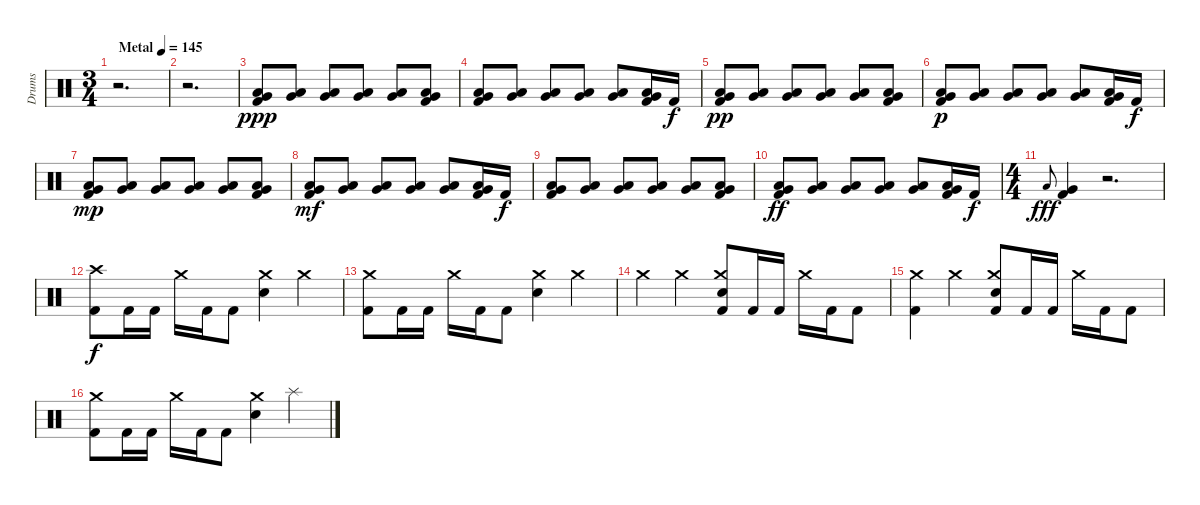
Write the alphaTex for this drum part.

\track ("Drums" "Drums") {instrument percussion}
\staff {score}
\articulation defaults
\ts (3 4)
\tempo (145 "Metal")
\clef neutral
\ks c
r.2{d dy ppp} |
r.2{d} |
("Low Tom (hit)" "Very Low Tom (hit)" "Kick (hit) 2").8 ("Low Tom (hit)" "Very Low Tom (hit)").8 ("Low Tom (hit)" "Very Low Tom (hit)").8 ("Low Tom (hit)" "Very Low Tom (hit)").8 ("Low Tom (hit)" "Very Low Tom (hit)").8 ("Low Tom (hit)" "Very Low Tom (hit)" "Kick (hit) 2").8 |
("Low Tom (hit)" "Very Low Tom (hit)" "Kick (hit) 2").8 ("Low Tom (hit)" "Very Low Tom (hit)").8 ("Low Tom (hit)" "Very Low Tom (hit)").8 ("Low Tom (hit)" "Very Low Tom (hit)").8 ("Low Tom (hit)" "Very Low Tom (hit)").8 ("Low Tom (hit)" "Very Low Tom (hit)" "Kick (hit) 2").16 "Kick (hit) 2".16{dy f} |
("Low Tom (hit)" "Very Low Tom (hit)" "Kick (hit) 2").8{dy pp} ("Low Tom (hit)" "Very Low Tom (hit)").8 ("Low Tom (hit)" "Very Low Tom (hit)").8 ("Low Tom (hit)" "Very Low Tom (hit)").8 ("Low Tom (hit)" "Very Low Tom (hit)").8 ("Low Tom (hit)" "Very Low Tom (hit)" "Kick (hit) 2").8 |
("Low Tom (hit)" "Very Low Tom (hit)" "Kick (hit) 2").8{dy p} ("Low Tom (hit)" "Very Low Tom (hit)").8 ("Low Tom (hit)" "Very Low Tom (hit)").8 ("Low Tom (hit)" "Very Low Tom (hit)").8 ("Low Tom (hit)" "Very Low Tom (hit)").8 ("Low Tom (hit)" "Very Low Tom (hit)" "Kick (hit) 2").16 "Kick (hit) 2".16{dy f} |
("Low Tom (hit)" "Very Low Tom (hit)" "Kick (hit) 2").8{dy mp} ("Low Tom (hit)" "Very Low Tom (hit)").8 ("Low Tom (hit)" "Very Low Tom (hit)").8 ("Low Tom (hit)" "Very Low Tom (hit)").8 ("Low Tom (hit)" "Very Low Tom (hit)").8 ("Low Tom (hit)" "Very Low Tom (hit)" "Kick (hit) 2").8 |
("Low Tom (hit)" "Very Low Tom (hit)" "Kick (hit) 2").8{dy mf} ("Low Tom (hit)" "Very Low Tom (hit)").8 ("Low Tom (hit)" "Very Low Tom (hit)").8 ("Low Tom (hit)" "Very Low Tom (hit)").8 ("Low Tom (hit)" "Very Low Tom (hit)").8 ("Low Tom (hit)" "Very Low Tom (hit)" "Kick (hit) 2").16 "Kick (hit) 2".16{dy f} |
("Low Tom (hit)" "Very Low Tom (hit)" "Kick (hit) 2").8 ("Low Tom (hit)" "Very Low Tom (hit)").8 ("Low Tom (hit)" "Very Low Tom (hit)").8 ("Low Tom (hit)" "Very Low Tom (hit)").8 ("Low Tom (hit)" "Very Low Tom (hit)").8 ("Low Tom (hit)" "Very Low Tom (hit)" "Kick (hit) 2").8 |
("Low Tom (hit)" "Very Low Tom (hit)" "Kick (hit) 2").8{dy ff} ("Low Tom (hit)" "Very Low Tom (hit)").8 ("Low Tom (hit)" "Very Low Tom (hit)").8 ("Low Tom (hit)" "Very Low Tom (hit)").8 ("Low Tom (hit)" "Very Low Tom (hit)").8 ("Low Tom (hit)" "Very Low Tom (hit)" "Kick (hit) 2").16 "Kick (hit) 2".16{dy f} |
\ts (4 4)
"Low Tom (hit)".8{gr onbeat dy fff} ("Very Low Tom (hit)" "Kick (hit) 2").4 r.2{d} |
("Crash high (hit)" "Kick (hit) 2").8{dy f} "Kick (hit) 2".16 "Kick (hit) 2".16 "Crash medium (hit)".16 "Kick (hit) 2".16 "Kick (hit) 2".8 ("Crash medium (hit)" "Electric Snare (hit)").4 "Crash medium (hit)".4 |
("Crash medium (hit)" "Kick (hit) 2").8 "Kick (hit) 2".16 "Kick (hit) 2".16 "Crash medium (hit)".16 "Kick (hit) 2".16 "Kick (hit) 2".8 ("Crash medium (hit)" "Electric Snare (hit)").4 "Crash medium (hit)".4 |
"Crash medium (hit)".4 "Crash medium (hit)".4 ("Crash medium (hit)" "Electric Snare (hit)" "Kick (hit) 2").8 "Kick (hit) 2".16 "Kick (hit) 2".16 "Crash medium (hit)".16 "Kick (hit) 2".16 "Kick (hit) 2".8 |
("Crash medium (hit)" "Kick (hit) 2").4 "Crash medium (hit)".4 ("Crash medium (hit)" "Electric Snare (hit)" "Kick (hit) 2").8 "Kick (hit) 2".16 "Kick (hit) 2".16 "Crash medium (hit)".16 "Kick (hit) 2".16 "Kick (hit) 2".8 |
("Crash medium (hit)" "Kick (hit) 2").8 "Kick (hit) 2".16 "Kick (hit) 2".16 "Crash medium (hit)".16 "Kick (hit) 2".16 "Kick (hit) 2".8 ("Crash medium (hit)" "Electric Snare (hit)").4 "Splash (hit)".4
